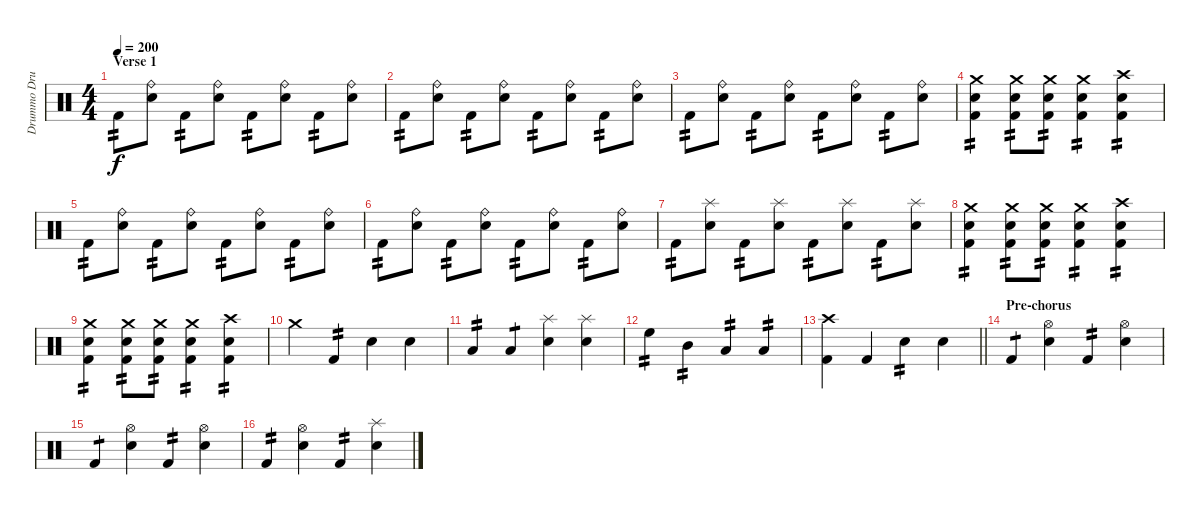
\track ("Drummo Drummer" "Drummo Dru") {instrument percussion}
\staff {score}
\articulation defaults
\ts (4 4)
\section ("" "Verse 1")
\tempo 200
\clef neutral
\ks c "Kick (hit) 2".8{tp 2 dy f}
("Ride (bell)" "Electric Snare (hit)").8 "Kick (hit) 2".8{tp 2} ("Ride (bell)" "Electric Snare (hit)").8 "Kick (hit) 2".8{tp 2} ("Ride (bell)" "Electric Snare (hit)").8 "Kick (hit) 2".8{tp 2} ("Ride (bell)" "Electric Snare (hit)").8 |
"Kick (hit) 2".8{tp 2} ("Ride (bell)" "Electric Snare (hit)").8 "Kick (hit) 2".8{tp 2} ("Ride (bell)" "Electric Snare (hit)").8 "Kick (hit) 2".8{tp 2} ("Ride (bell)" "Electric Snare (hit)").8 "Kick (hit) 2".8{tp 2} ("Ride (bell)" "Electric Snare (hit)").8 |
"Kick (hit) 2".8{tp 2} ("Ride (bell)" "Electric Snare (hit)").8 "Kick (hit) 2".8{tp 2} ("Ride (bell)" "Electric Snare (hit)").8 "Kick (hit) 2".8{tp 2} ("Ride (bell)" "Electric Snare (hit)").8 "Kick (hit) 2".8{tp 2} ("Ride (bell)" "Electric Snare (hit)").8 |
("Crash medium (hit)" "Electric Snare (hit)" "Kick (hit) 2").4{tp 2} ("Crash medium (hit)" "Electric Snare (hit)" "Kick (hit) 2").8{tp 2} ("Crash medium (hit)" "Electric Snare (hit)" "Kick (hit) 2").8{tp 2} ("Crash medium (hit)" "Electric Snare (hit)" "Kick (hit) 2").4{tp 2} ("Crash high (hit)" "Electric Snare (hit)" "Kick (hit) 2").4{tp 2} |
"Kick (hit) 2".8{tp 2} ("Ride (bell)" "Electric Snare (hit)").8 "Kick (hit) 2".8{tp 2} ("Ride (bell)" "Electric Snare (hit)").8 "Kick (hit) 2".8{tp 2} ("Ride (bell)" "Electric Snare (hit)").8 "Kick (hit) 2".8{tp 2} ("Ride (bell)" "Electric Snare (hit)").8 |
"Kick (hit) 2".8{tp 2} ("Ride (bell)" "Electric Snare (hit)").8 "Kick (hit) 2".8{tp 2} ("Ride (bell)" "Electric Snare (hit)").8 "Kick (hit) 2".8{tp 2} ("Ride (bell)" "Electric Snare (hit)").8 "Kick (hit) 2".8{tp 2} ("Ride (bell)" "Electric Snare (hit)").8 |
"Kick (hit) 2".8{tp 2} ("Splash (hit)" "Electric Snare (hit)").8 "Kick (hit) 2".8{tp 2} ("Splash (hit)" "Electric Snare (hit)").8 "Kick (hit) 2".8{tp 2} ("Splash (hit)" "Electric Snare (hit)").8 "Kick (hit) 2".8{tp 2} ("Splash (hit)" "Electric Snare (hit)").8 |
("Crash medium (hit)" "Electric Snare (hit)" "Kick (hit) 2").4{tp 2} ("Crash medium (hit)" "Electric Snare (hit)" "Kick (hit) 2").8{tp 2} ("Crash medium (hit)" "Electric Snare (hit)" "Kick (hit) 2").8{tp 2} ("Crash medium (hit)" "Electric Snare (hit)" "Kick (hit) 2").4{tp 2} ("Crash high (hit)" "Electric Snare (hit)" "Kick (hit) 2").4{tp 2} |
("Crash medium (hit)" "Electric Snare (hit)" "Kick (hit) 2").4{tp 2} ("Crash medium (hit)" "Electric Snare (hit)" "Kick (hit) 2").8{tp 2} ("Crash medium (hit)" "Electric Snare (hit)" "Kick (hit) 2").8{tp 2} ("Crash medium (hit)" "Electric Snare (hit)" "Kick (hit) 2").4{tp 2} ("Crash high (hit)" "Electric Snare (hit)" "Kick (hit) 2").4{tp 2} |
"Crash medium (hit)".4 "Kick (hit) 2".4{tp 2} "Electric Snare (hit)".4 "Electric Snare (hit)".4 |
"Low Tom (hit)".4{tp 2} "Low Floor Tom (hit)".4{tp 1} ("Splash (hit)" "Electric Snare (hit)").4 ("Splash (hit)" "Electric Snare (hit)").4 |
"High Floor Tom (hit)".4{tp 2} "Mid Tom (hit)".4{tp 2} "Low Tom (hit)".4{tp 2} "Low Floor Tom (hit)".4{tp 2} |
\barLineRight lightlight
("Crash high (hit)" "Kick (hit) 2").4 "Kick (hit) 2".4 "Electric Snare (hit)".4{tp 2} "Electric Snare (hit)".4 |
\section ("" "Pre-chorus")
"Kick (hit) 2".4{tp 1} ("Hi-Hat (open)" "Electric Snare (hit)").4 "Kick (hit) 2".4{tp 2} ("Hi-Hat (open)" "Electric Snare (hit)").4 |
"Kick (hit) 2".4{tp 1} ("Hi-Hat (open)" "Electric Snare (hit)").4 "Kick (hit) 2".4{tp 2} ("Hi-Hat (open)" "Electric Snare (hit)").4 |
"Kick (hit) 2".4{tp 2} ("Hi-Hat (open)" "Electric Snare (hit)").4 "Kick (hit) 2".4{tp 2} ("Splash (hit)" "Electric Snare (hit)").4
